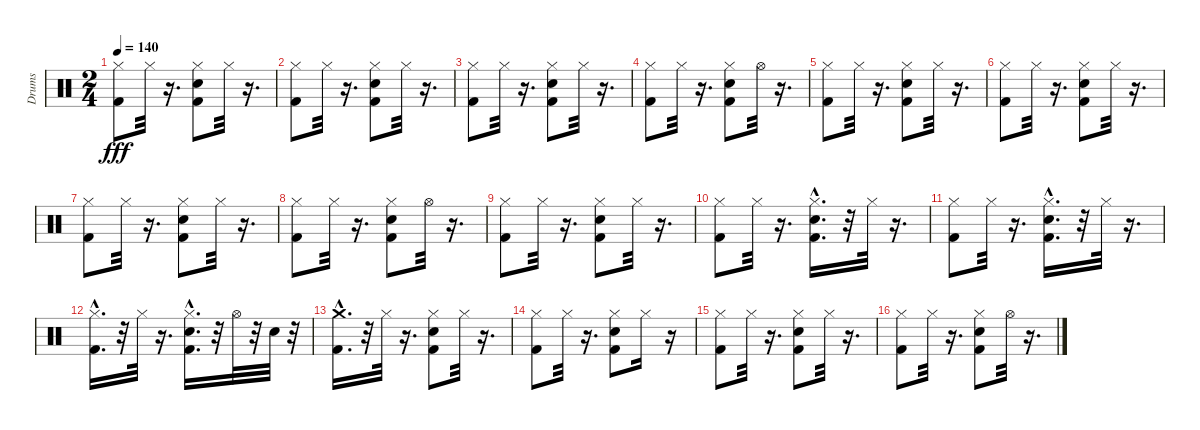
\track ("Drums" "Drums") {instrument percussion}
\staff {score}
\articulation defaults
\ts (2 4)
\tempo 140
\clef neutral
\ks c
("Kick (hit) 2" "Hi-Hat (closed)").8{dy fff} "Hi-Hat (closed)".32 r.16{d} ("Snare (hit) 2" "Kick (hit) 2" "Hi-Hat (closed)").8 "Hi-Hat (closed)".32 r.16{d} |
("Kick (hit) 2" "Hi-Hat (closed)").8 "Hi-Hat (closed)".32 r.16{d} ("Snare (hit) 2" "Kick (hit) 2" "Hi-Hat (closed)").8 "Hi-Hat (closed)".32 r.16{d} |
("Kick (hit) 2" "Hi-Hat (closed)").8 "Hi-Hat (closed)".32 r.16{d} ("Snare (hit) 2" "Kick (hit) 2" "Hi-Hat (closed)").8 "Hi-Hat (closed)".32 r.16{d} |
("Kick (hit) 2" "Hi-Hat (closed)").8 "Hi-Hat (closed)".32 r.16{d} ("Snare (hit) 2" "Kick (hit) 2" "Hi-Hat (closed)").8 "Hi-Hat (open)".32 r.16{d} |
("Kick (hit) 2" "Hi-Hat (closed)").8 "Hi-Hat (closed)".32 r.16{d} ("Snare (hit) 2" "Kick (hit) 2" "Hi-Hat (closed)").8 "Hi-Hat (closed)".32 r.16{d} |
("Kick (hit) 2" "Hi-Hat (closed)").8 "Hi-Hat (closed)".32 r.16{d} ("Snare (hit) 2" "Kick (hit) 2" "Hi-Hat (closed)").8 "Hi-Hat (closed)".32 r.16{d} |
("Kick (hit) 2" "Hi-Hat (closed)").8 "Hi-Hat (closed)".32 r.16{d} ("Kick (hit) 2" "Hi-Hat (closed)" "Snare (hit) 2").8 "Hi-Hat (closed)".32 r.16{d} |
("Kick (hit) 2" "Hi-Hat (closed)").8 "Hi-Hat (closed)".32 r.16{d} ("Snare (hit) 2" "Kick (hit) 2" "Hi-Hat (closed)").8 "Hi-Hat (open)".32 r.16{d} |
("Kick (hit) 2" "Hi-Hat (closed)").8 "Hi-Hat (closed)".32 r.16{d} ("Snare (hit) 2" "Kick (hit) 2" "Hi-Hat (closed)").8 "Hi-Hat (closed)".32 r.16{d} |
("Kick (hit) 2" "Hi-Hat (closed)").8 "Hi-Hat (closed)".32 r.16{d} ("Snare (hit) 2"{hac} "Kick (hit) 2"{hac} "Hi-Hat (closed)").16{d} r.32 "Hi-Hat (closed)".32 r.16{d} |
("Kick (hit) 2" "Hi-Hat (closed)").8 "Hi-Hat (closed)".32 r.16{d} ("Snare (hit) 2"{hac} "Kick (hit) 2"{hac} "Hi-Hat (closed)").16{d} r.32 "Hi-Hat (closed)".32 r.16{d} |
("Kick (hit) 2"{hac} "Hi-Hat (closed)").16{d} r.32 "Hi-Hat (closed)".32 r.16{d} ("Snare (hit) 2"{hac} "Kick (hit) 2"{hac} "Hi-Hat (closed)").16{d} r.32 "Hi-Hat (open)".32 r.32 "Snare (hit) 2".32 r.32 |
("Kick (hit) 2"{hac} "Crash medium (hit)").16{d} r.32 "Hi-Hat (closed)".32 r.16{d} ("Hi-Hat (closed)" "Kick (hit) 2" "Snare (hit) 2").8 "Hi-Hat (closed)".32 r.16{d} |
("Kick (hit) 2" "Hi-Hat (closed)").8 "Hi-Hat (closed)".32 r.16{d} ("Snare (hit) 2" "Kick (hit) 2" "Hi-Hat (closed)").8 "Hi-Hat (closed)".16 r.16 |
("Kick (hit) 2" "Hi-Hat (closed)").8 "Hi-Hat (closed)".32 r.16{d} ("Snare (hit) 2" "Kick (hit) 2" "Hi-Hat (closed)").8 "Hi-Hat (closed)".32 r.16{d} |
("Kick (hit) 2" "Hi-Hat (closed)").8 "Hi-Hat (closed)".32 r.16{d} ("Kick (hit) 2" "Snare (hit) 2" "Hi-Hat (closed)").8 "Hi-Hat (open)".32 r.16{d}
